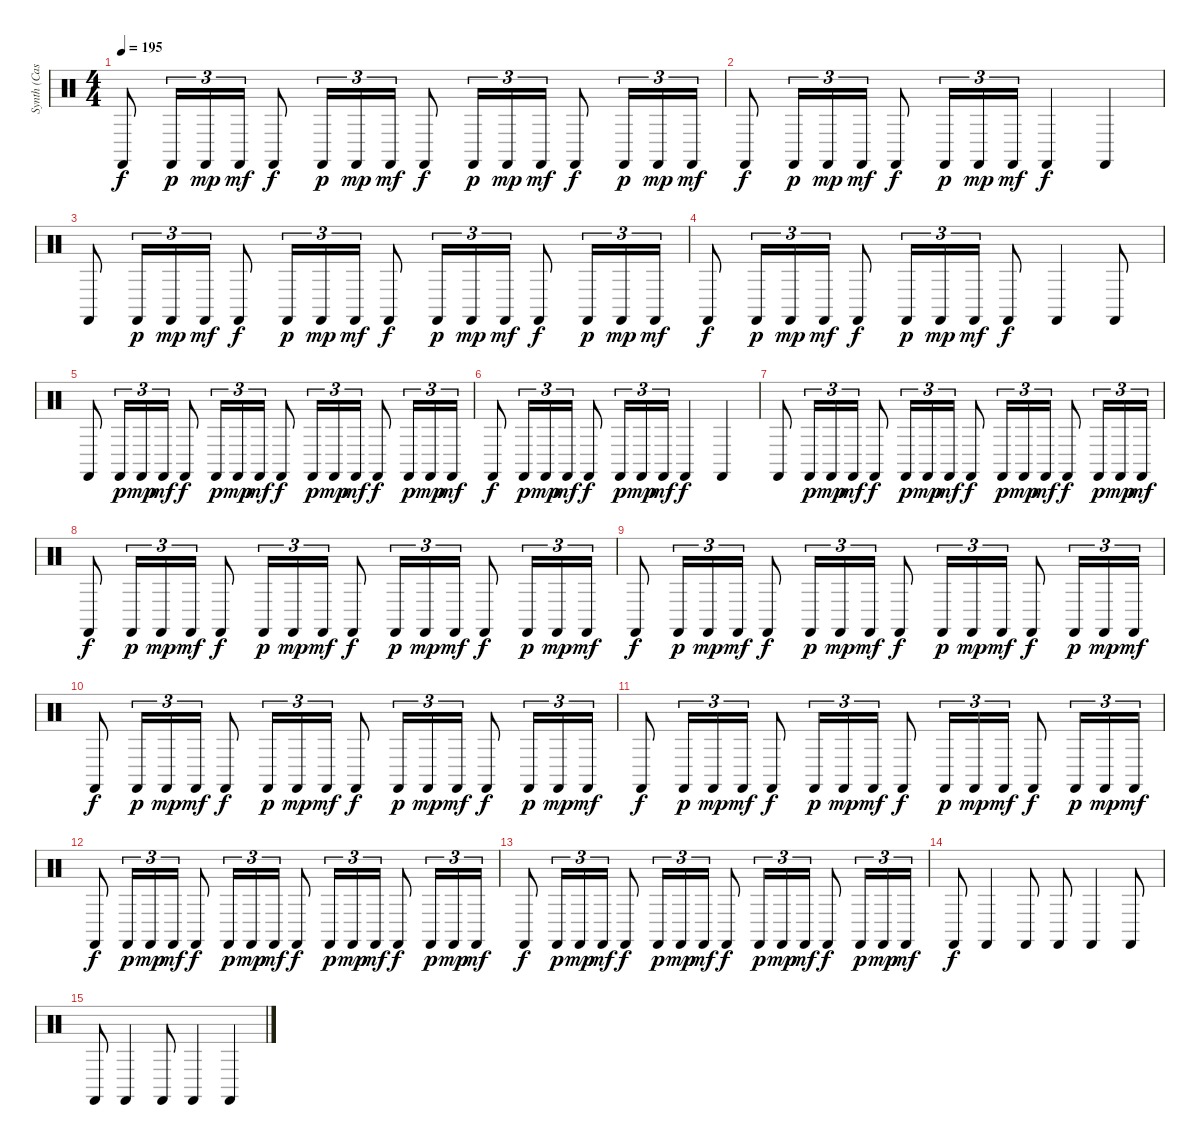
\track ("Synth (Castinets)" "Synth (Cas") {instrument percussion}
\staff {score}
\articulation defaults
\ts (4 4)
\tempo 195
\clef neutral
\ks c "Castanets (hit)".8{dy f} "Castanets (hit)".16{tu (3 2) dy p} "Castanets (hit)".16{tu (3 2) dy mp} "Castanets (hit)".16{tu (3 2) dy mf} "Castanets (hit)".8{dy f} "Castanets (hit)".16{tu (3 2) dy p} "Castanets (hit)".16{tu (3 2) dy mp} "Castanets (hit)".16{tu (3 2) dy mf} "Castanets (hit)".8{dy f} "Castanets (hit)".16{tu (3 2) dy p} "Castanets (hit)".16{tu (3 2) dy mp} "Castanets (hit)".16{tu (3 2) dy mf} "Castanets (hit)".8{dy f} "Castanets (hit)".16{tu (3 2) dy p} "Castanets (hit)".16{tu (3 2) dy mp} "Castanets (hit)".16{tu (3 2) dy mf}
|
"Castanets (hit)".8{dy f} "Castanets (hit)".16{tu (3 2) dy p} "Castanets (hit)".16{tu (3 2) dy mp} "Castanets (hit)".16{tu (3 2) dy mf} "Castanets (hit)".8{dy f} "Castanets (hit)".16{tu (3 2) dy p} "Castanets (hit)".16{tu (3 2) dy mp} "Castanets (hit)".16{tu (3 2) dy mf} "Castanets (hit)".4{dy f} "Castanets (hit)".4 |
"Castanets (hit)".8 "Castanets (hit)".16{tu (3 2) dy p} "Castanets (hit)".16{tu (3 2) dy mp} "Castanets (hit)".16{tu (3 2) dy mf} "Castanets (hit)".8{dy f} "Castanets (hit)".16{tu (3 2) dy p} "Castanets (hit)".16{tu (3 2) dy mp} "Castanets (hit)".16{tu (3 2) dy mf} "Castanets (hit)".8{dy f} "Castanets (hit)".16{tu (3 2) dy p} "Castanets (hit)".16{tu (3 2) dy mp} "Castanets (hit)".16{tu (3 2) dy mf} "Castanets (hit)".8{dy f} "Castanets (hit)".16{tu (3 2) dy p} "Castanets (hit)".16{tu (3 2) dy mp} "Castanets (hit)".16{tu (3 2) dy mf} |
"Castanets (hit)".8{dy f} "Castanets (hit)".16{tu (3 2) dy p} "Castanets (hit)".16{tu (3 2) dy mp} "Castanets (hit)".16{tu (3 2) dy mf} "Castanets (hit)".8{dy f} "Castanets (hit)".16{tu (3 2) dy p} "Castanets (hit)".16{tu (3 2) dy mp} "Castanets (hit)".16{tu (3 2) dy mf} "Castanets (hit)".8{dy f} "Castanets (hit)".4 "Castanets (hit)".8 |
"Castanets (hit)".8 "Castanets (hit)".16{tu (3 2) dy p} "Castanets (hit)".16{tu (3 2) dy mp} "Castanets (hit)".16{tu (3 2) dy mf} "Castanets (hit)".8{dy f} "Castanets (hit)".16{tu (3 2) dy p} "Castanets (hit)".16{tu (3 2) dy mp} "Castanets (hit)".16{tu (3 2) dy mf} "Castanets (hit)".8{dy f} "Castanets (hit)".16{tu (3 2) dy p} "Castanets (hit)".16{tu (3 2) dy mp} "Castanets (hit)".16{tu (3 2) dy mf} "Castanets (hit)".8{dy f} "Castanets (hit)".16{tu (3 2) dy p} "Castanets (hit)".16{tu (3 2) dy mp} "Castanets (hit)".16{tu (3 2) dy mf} |
"Castanets (hit)".8{dy f} "Castanets (hit)".16{tu (3 2) dy p} "Castanets (hit)".16{tu (3 2) dy mp} "Castanets (hit)".16{tu (3 2) dy mf} "Castanets (hit)".8{dy f} "Castanets (hit)".16{tu (3 2) dy p} "Castanets (hit)".16{tu (3 2) dy mp} "Castanets (hit)".16{tu (3 2) dy mf} "Castanets (hit)".4{dy f} "Castanets (hit)".4 |
"Castanets (hit)".8 "Castanets (hit)".16{tu (3 2) dy p} "Castanets (hit)".16{tu (3 2) dy mp} "Castanets (hit)".16{tu (3 2) dy mf} "Castanets (hit)".8{dy f} "Castanets (hit)".16{tu (3 2) dy p} "Castanets (hit)".16{tu (3 2) dy mp} "Castanets (hit)".16{tu (3 2) dy mf} "Castanets (hit)".8{dy f} "Castanets (hit)".16{tu (3 2) dy p} "Castanets (hit)".16{tu (3 2) dy mp} "Castanets (hit)".16{tu (3 2) dy mf} "Castanets (hit)".8{dy f} "Castanets (hit)".16{tu (3 2) dy p} "Castanets (hit)".16{tu (3 2) dy mp} "Castanets (hit)".16{tu (3 2) dy mf} |
"Castanets (hit)".8{dy f} "Castanets (hit)".16{tu (3 2) dy p} "Castanets (hit)".16{tu (3 2) dy mp} "Castanets (hit)".16{tu (3 2) dy mf} "Castanets (hit)".8{dy f} "Castanets (hit)".16{tu (3 2) dy p} "Castanets (hit)".16{tu (3 2) dy mp} "Castanets (hit)".16{tu (3 2) dy mf} "Castanets (hit)".8{dy f} "Castanets (hit)".16{tu (3 2) dy p} "Castanets (hit)".16{tu (3 2) dy mp} "Castanets (hit)".16{tu (3 2) dy mf} "Castanets (hit)".8{dy f} "Castanets (hit)".16{tu (3 2) dy p} "Castanets (hit)".16{tu (3 2) dy mp} "Castanets (hit)".16{tu (3 2) dy mf} |
"Castanets (hit)".8{dy f} "Castanets (hit)".16{tu (3 2) dy p} "Castanets (hit)".16{tu (3 2) dy mp} "Castanets (hit)".16{tu (3 2) dy mf} "Castanets (hit)".8{dy f} "Castanets (hit)".16{tu (3 2) dy p} "Castanets (hit)".16{tu (3 2) dy mp} "Castanets (hit)".16{tu (3 2) dy mf} "Castanets (hit)".8{dy f} "Castanets (hit)".16{tu (3 2) dy p} "Castanets (hit)".16{tu (3 2) dy mp} "Castanets (hit)".16{tu (3 2) dy mf} "Castanets (hit)".8{dy f} "Castanets (hit)".16{tu (3 2) dy p} "Castanets (hit)".16{tu (3 2) dy mp} "Castanets (hit)".16{tu (3 2) dy mf} |
"Castanets (hit)".8{dy f} "Castanets (hit)".16{tu (3 2) dy p} "Castanets (hit)".16{tu (3 2) dy mp} "Castanets (hit)".16{tu (3 2) dy mf} "Castanets (hit)".8{dy f} "Castanets (hit)".16{tu (3 2) dy p} "Castanets (hit)".16{tu (3 2) dy mp} "Castanets (hit)".16{tu (3 2) dy mf} "Castanets (hit)".8{dy f} "Castanets (hit)".16{tu (3 2) dy p} "Castanets (hit)".16{tu (3 2) dy mp} "Castanets (hit)".16{tu (3 2) dy mf} "Castanets (hit)".8{dy f} "Castanets (hit)".16{tu (3 2) dy p} "Castanets (hit)".16{tu (3 2) dy mp} "Castanets (hit)".16{tu (3 2) dy mf} |
"Castanets (hit)".8{dy f} "Castanets (hit)".16{tu (3 2) dy p} "Castanets (hit)".16{tu (3 2) dy mp} "Castanets (hit)".16{tu (3 2) dy mf} "Castanets (hit)".8{dy f} "Castanets (hit)".16{tu (3 2) dy p} "Castanets (hit)".16{tu (3 2) dy mp} "Castanets (hit)".16{tu (3 2) dy mf} "Castanets (hit)".8{dy f} "Castanets (hit)".16{tu (3 2) dy p} "Castanets (hit)".16{tu (3 2) dy mp} "Castanets (hit)".16{tu (3 2) dy mf} "Castanets (hit)".8{dy f} "Castanets (hit)".16{tu (3 2) dy p} "Castanets (hit)".16{tu (3 2) dy mp} "Castanets (hit)".16{tu (3 2) dy mf} |
"Castanets (hit)".8{dy f} "Castanets (hit)".16{tu (3 2) dy p} "Castanets (hit)".16{tu (3 2) dy mp} "Castanets (hit)".16{tu (3 2) dy mf} "Castanets (hit)".8{dy f} "Castanets (hit)".16{tu (3 2) dy p} "Castanets (hit)".16{tu (3 2) dy mp} "Castanets (hit)".16{tu (3 2) dy mf} "Castanets (hit)".8{dy f} "Castanets (hit)".16{tu (3 2) dy p} "Castanets (hit)".16{tu (3 2) dy mp} "Castanets (hit)".16{tu (3 2) dy mf} "Castanets (hit)".8{dy f} "Castanets (hit)".16{tu (3 2) dy p} "Castanets (hit)".16{tu (3 2) dy mp} "Castanets (hit)".16{tu (3 2) dy mf} |
"Castanets (hit)".8{dy f} "Castanets (hit)".16{tu (3 2) dy p} "Castanets (hit)".16{tu (3 2) dy mp} "Castanets (hit)".16{tu (3 2) dy mf} "Castanets (hit)".8{dy f} "Castanets (hit)".16{tu (3 2) dy p} "Castanets (hit)".16{tu (3 2) dy mp} "Castanets (hit)".16{tu (3 2) dy mf} "Castanets (hit)".8{dy f} "Castanets (hit)".16{tu (3 2) dy p} "Castanets (hit)".16{tu (3 2) dy mp} "Castanets (hit)".16{tu (3 2) dy mf} "Castanets (hit)".8{dy f} "Castanets (hit)".16{tu (3 2) dy p} "Castanets (hit)".16{tu (3 2) dy mp} "Castanets (hit)".16{tu (3 2) dy mf} |
"Castanets (hit)".8{dy f} "Castanets (hit)".4 "Castanets (hit)".8 "Castanets (hit)".8 "Castanets (hit)".4 "Castanets (hit)".8 |
"Castanets (hit)".8 "Castanets (hit)".4 "Castanets (hit)".8 "Castanets (hit)".4 "Castanets (hit)".4
